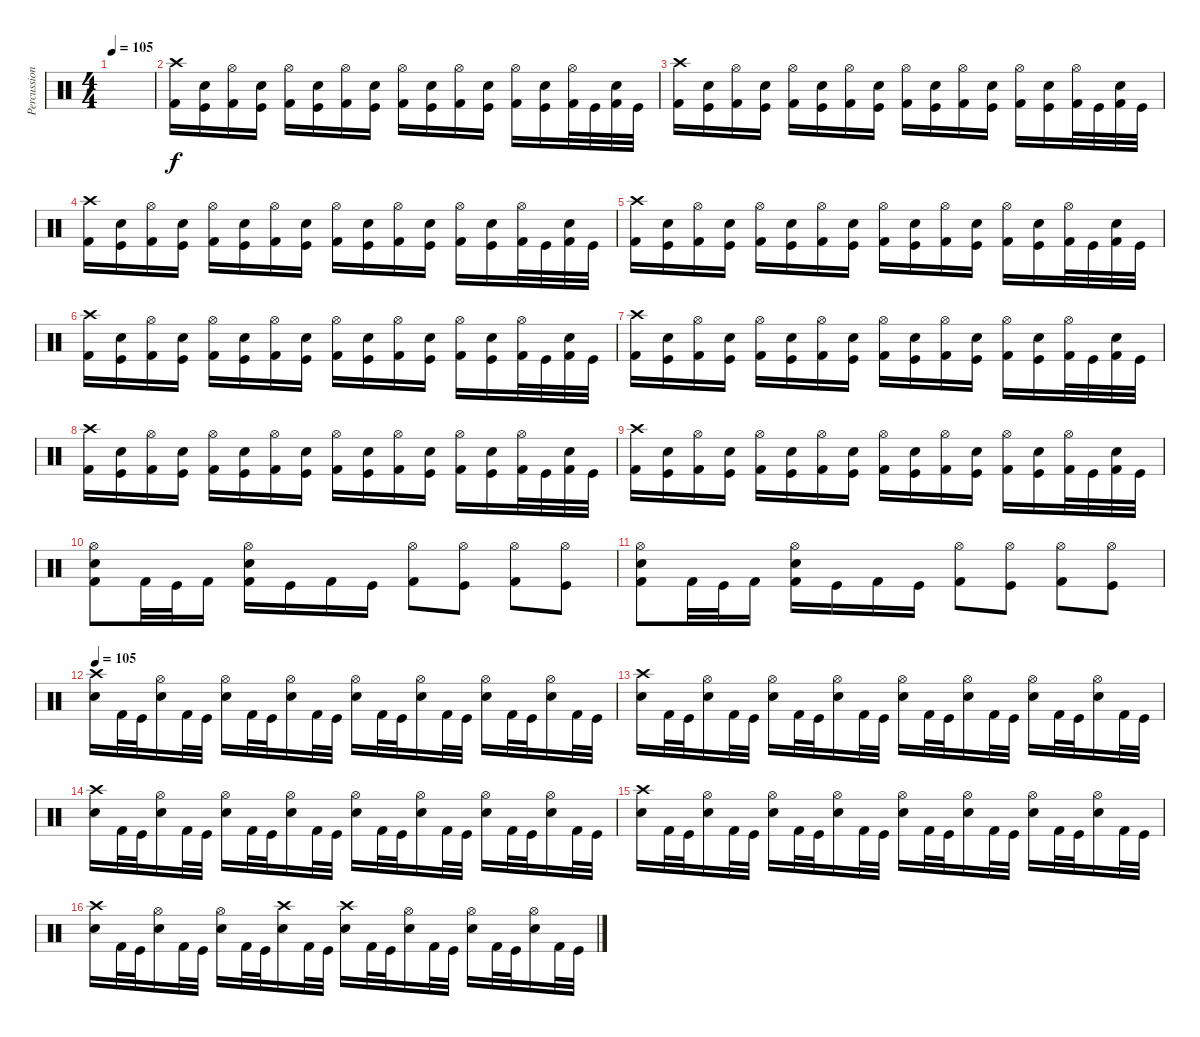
\track ("Percussion" "Percussion") {instrument percussion}
\staff {score}
\articulation defaults
\ts (4 4)
\tempo 105
\clef neutral
\ks c
|
("Kick (hit) 2" "Crash high (hit)").16 ("Kick (hit)" "Snare (hit) 2").16 ("Kick (hit) 2" "Hi-Hat (open)").16 ("Kick (hit)" "Snare (hit) 2").16 ("Kick (hit) 2" "Hi-Hat (open)").16 ("Kick (hit)" "Snare (hit) 2").16 ("Kick (hit) 2" "Hi-Hat (open)").16 ("Kick (hit)" "Snare (hit) 2").16 ("Kick (hit) 2" "Hi-Hat (open)").16 ("Kick (hit)" "Snare (hit) 2").16 ("Kick (hit) 2" "Hi-Hat (open)").16 ("Kick (hit)" "Snare (hit) 2").16 ("Kick (hit) 2" "Hi-Hat (open)").16 ("Kick (hit)" "Snare (hit) 2").16 ("Kick (hit) 2" "Hi-Hat (open)").32 "Kick (hit)".32 ("Kick (hit) 2" "Snare (hit) 2").32 "Kick (hit)".32 |
("Kick (hit) 2" "Crash high (hit)").16 ("Kick (hit)" "Snare (hit) 2").16 ("Kick (hit) 2" "Hi-Hat (open)").16 ("Kick (hit)" "Snare (hit) 2").16 ("Kick (hit) 2" "Hi-Hat (open)").16 ("Kick (hit)" "Snare (hit) 2").16 ("Kick (hit) 2" "Hi-Hat (open)").16 ("Kick (hit)" "Snare (hit) 2").16 ("Kick (hit) 2" "Hi-Hat (open)").16 ("Kick (hit)" "Snare (hit) 2").16 ("Kick (hit) 2" "Hi-Hat (open)").16 ("Kick (hit)" "Snare (hit) 2").16 ("Kick (hit) 2" "Hi-Hat (open)").16 ("Kick (hit)" "Snare (hit) 2").16 ("Kick (hit) 2" "Hi-Hat (open)").32 "Kick (hit)".32 ("Kick (hit) 2" "Snare (hit) 2").32 "Kick (hit)".32 |
("Kick (hit) 2" "Crash high (hit)").16 ("Kick (hit)" "Snare (hit) 2").16 ("Kick (hit) 2" "Hi-Hat (open)").16 ("Kick (hit)" "Snare (hit) 2").16 ("Kick (hit) 2" "Hi-Hat (open)").16 ("Kick (hit)" "Snare (hit) 2").16 ("Kick (hit) 2" "Hi-Hat (open)").16 ("Kick (hit)" "Snare (hit) 2").16 ("Kick (hit) 2" "Hi-Hat (open)").16 ("Kick (hit)" "Snare (hit) 2").16 ("Kick (hit) 2" "Hi-Hat (open)").16 ("Kick (hit)" "Snare (hit) 2").16 ("Kick (hit) 2" "Hi-Hat (open)").16 ("Kick (hit)" "Snare (hit) 2").16 ("Kick (hit) 2" "Hi-Hat (open)").32 "Kick (hit)".32 ("Kick (hit) 2" "Snare (hit) 2").32 "Kick (hit)".32 |
("Kick (hit) 2" "Crash high (hit)").16 ("Kick (hit)" "Snare (hit) 2").16 ("Kick (hit) 2" "Hi-Hat (open)").16 ("Kick (hit)" "Snare (hit) 2").16 ("Kick (hit) 2" "Hi-Hat (open)").16 ("Kick (hit)" "Snare (hit) 2").16 ("Kick (hit) 2" "Hi-Hat (open)").16 ("Kick (hit)" "Snare (hit) 2").16 ("Kick (hit) 2" "Hi-Hat (open)").16 ("Kick (hit)" "Snare (hit) 2").16 ("Kick (hit) 2" "Hi-Hat (open)").16 ("Kick (hit)" "Snare (hit) 2").16 ("Kick (hit) 2" "Hi-Hat (open)").16 ("Kick (hit)" "Snare (hit) 2").16 ("Kick (hit) 2" "Hi-Hat (open)").32 "Kick (hit)".32 ("Kick (hit) 2" "Snare (hit) 2").32 "Kick (hit)".32 |
("Kick (hit) 2" "Crash high (hit)").16 ("Kick (hit)" "Snare (hit) 2").16 ("Kick (hit) 2" "Hi-Hat (open)").16 ("Kick (hit)" "Snare (hit) 2").16 ("Kick (hit) 2" "Hi-Hat (open)").16 ("Kick (hit)" "Snare (hit) 2").16 ("Kick (hit) 2" "Hi-Hat (open)").16 ("Kick (hit)" "Snare (hit) 2").16 ("Kick (hit) 2" "Hi-Hat (open)").16 ("Kick (hit)" "Snare (hit) 2").16 ("Kick (hit) 2" "Hi-Hat (open)").16 ("Kick (hit)" "Snare (hit) 2").16 ("Kick (hit) 2" "Hi-Hat (open)").16 ("Kick (hit)" "Snare (hit) 2").16 ("Kick (hit) 2" "Hi-Hat (open)").32 "Kick (hit)".32 ("Kick (hit) 2" "Snare (hit) 2").32 "Kick (hit)".32 |
("Kick (hit) 2" "Crash high (hit)").16 ("Kick (hit)" "Snare (hit) 2").16 ("Kick (hit) 2" "Hi-Hat (open)").16 ("Kick (hit)" "Snare (hit) 2").16 ("Kick (hit) 2" "Hi-Hat (open)").16 ("Kick (hit)" "Snare (hit) 2").16 ("Kick (hit) 2" "Hi-Hat (open)").16 ("Kick (hit)" "Snare (hit) 2").16 ("Kick (hit) 2" "Hi-Hat (open)").16 ("Kick (hit)" "Snare (hit) 2").16 ("Kick (hit) 2" "Hi-Hat (open)").16 ("Kick (hit)" "Snare (hit) 2").16 ("Kick (hit) 2" "Hi-Hat (open)").16 ("Kick (hit)" "Snare (hit) 2").16 ("Kick (hit) 2" "Hi-Hat (open)").32 "Kick (hit)".32 ("Kick (hit) 2" "Snare (hit) 2").32 "Kick (hit)".32 |
("Kick (hit) 2" "Crash high (hit)").16 ("Kick (hit)" "Snare (hit) 2").16 ("Kick (hit) 2" "Hi-Hat (open)").16 ("Kick (hit)" "Snare (hit) 2").16 ("Kick (hit) 2" "Hi-Hat (open)").16 ("Kick (hit)" "Snare (hit) 2").16 ("Kick (hit) 2" "Hi-Hat (open)").16 ("Kick (hit)" "Snare (hit) 2").16 ("Kick (hit) 2" "Hi-Hat (open)").16 ("Kick (hit)" "Snare (hit) 2").16 ("Kick (hit) 2" "Hi-Hat (open)").16 ("Kick (hit)" "Snare (hit) 2").16 ("Kick (hit) 2" "Hi-Hat (open)").16 ("Kick (hit)" "Snare (hit) 2").16 ("Kick (hit) 2" "Hi-Hat (open)").32 "Kick (hit)".32 ("Kick (hit) 2" "Snare (hit) 2").32 "Kick (hit)".32 |
("Kick (hit) 2" "Crash high (hit)").16 ("Kick (hit)" "Snare (hit) 2").16 ("Kick (hit) 2" "Hi-Hat (open)").16 ("Kick (hit)" "Snare (hit) 2").16 ("Kick (hit) 2" "Hi-Hat (open)").16 ("Kick (hit)" "Snare (hit) 2").16 ("Kick (hit) 2" "Hi-Hat (open)").16 ("Kick (hit)" "Snare (hit) 2").16 ("Kick (hit) 2" "Hi-Hat (open)").16 ("Kick (hit)" "Snare (hit) 2").16 ("Kick (hit) 2" "Hi-Hat (open)").16 ("Kick (hit)" "Snare (hit) 2").16 ("Kick (hit) 2" "Hi-Hat (open)").16 ("Kick (hit)" "Snare (hit) 2").16 ("Kick (hit) 2" "Hi-Hat (open)").32 "Kick (hit)".32 ("Kick (hit) 2" "Snare (hit) 2").32 "Kick (hit)".32 |
("Kick (hit) 2" "Hi-Hat (open)" "Snare (hit) 2").8 "Kick (hit) 2".32 "Kick (hit)".32 "Kick (hit) 2".16 ("Kick (hit) 2" "Hi-Hat (open)" "Snare (hit) 2").16 "Kick (hit)".16 "Kick (hit) 2".16 "Kick (hit)".16 ("Kick (hit) 2" "Hi-Hat (open)").8 ("Kick (hit)" "Hi-Hat (open)").8 ("Kick (hit) 2" "Hi-Hat (open)").8 ("Kick (hit)" "Hi-Hat (open)").8 |
("Kick (hit) 2" "Hi-Hat (open)" "Snare (hit) 2").8 "Kick (hit) 2".32 "Kick (hit)".32 "Kick (hit) 2".16 ("Kick (hit) 2" "Hi-Hat (open)" "Snare (hit) 2").16 "Kick (hit)".16 "Kick (hit) 2".16 "Kick (hit)".16 ("Kick (hit) 2" "Hi-Hat (open)").8 ("Kick (hit)" "Hi-Hat (open)").8 ("Kick (hit) 2" "Hi-Hat (open)").8 ("Kick (hit)" "Hi-Hat (open)").8 |
\tempo 105
("Snare (hit) 2" "Crash high (hit)").16 "Kick (hit) 2".32 "Kick (hit)".32 ("Snare (hit) 2" "Hi-Hat (open)").16 "Kick (hit) 2".32 "Kick (hit)".32 ("Snare (hit) 2" "Hi-Hat (open)").16 "Kick (hit) 2".32 "Kick (hit)".32 ("Snare (hit) 2" "Hi-Hat (open)").16 "Kick (hit) 2".32 "Kick (hit)".32 ("Snare (hit) 2" "Hi-Hat (open)").16 "Kick (hit) 2".32 "Kick (hit)".32 ("Snare (hit) 2" "Hi-Hat (open)").16 "Kick (hit) 2".32 "Kick (hit)".32 ("Snare (hit) 2" "Hi-Hat (open)").16 "Kick (hit) 2".32 "Kick (hit)".32 ("Snare (hit) 2" "Hi-Hat (open)").16 "Kick (hit) 2".32 "Kick (hit)".32 |
("Snare (hit) 2" "Crash high (hit)").16 "Kick (hit) 2".32 "Kick (hit)".32 ("Snare (hit) 2" "Hi-Hat (open)").16 "Kick (hit) 2".32 "Kick (hit)".32 ("Snare (hit) 2" "Hi-Hat (open)").16 "Kick (hit) 2".32 "Kick (hit)".32 ("Snare (hit) 2" "Hi-Hat (open)").16 "Kick (hit) 2".32 "Kick (hit)".32 ("Snare (hit) 2" "Hi-Hat (open)").16 "Kick (hit) 2".32 "Kick (hit)".32 ("Snare (hit) 2" "Hi-Hat (open)").16 "Kick (hit) 2".32 "Kick (hit)".32 ("Snare (hit) 2" "Hi-Hat (open)").16 "Kick (hit) 2".32 "Kick (hit)".32 ("Snare (hit) 2" "Hi-Hat (open)").16 "Kick (hit) 2".32 "Kick (hit)".32 |
("Snare (hit) 2" "Crash high (hit)").16 "Kick (hit) 2".32 "Kick (hit)".32 ("Snare (hit) 2" "Hi-Hat (open)").16 "Kick (hit) 2".32 "Kick (hit)".32 ("Snare (hit) 2" "Hi-Hat (open)").16 "Kick (hit) 2".32 "Kick (hit)".32 ("Snare (hit) 2" "Hi-Hat (open)").16 "Kick (hit) 2".32 "Kick (hit)".32 ("Snare (hit) 2" "Hi-Hat (open)").16 "Kick (hit) 2".32 "Kick (hit)".32 ("Snare (hit) 2" "Hi-Hat (open)").16 "Kick (hit) 2".32 "Kick (hit)".32 ("Snare (hit) 2" "Hi-Hat (open)").16 "Kick (hit) 2".32 "Kick (hit)".32 ("Snare (hit) 2" "Hi-Hat (open)").16 "Kick (hit) 2".32 "Kick (hit)".32 |
("Snare (hit) 2" "Crash high (hit)").16 "Kick (hit) 2".32 "Kick (hit)".32 ("Snare (hit) 2" "Hi-Hat (open)").16 "Kick (hit) 2".32 "Kick (hit)".32 ("Snare (hit) 2" "Hi-Hat (open)").16 "Kick (hit) 2".32 "Kick (hit)".32 ("Snare (hit) 2" "Hi-Hat (open)").16 "Kick (hit) 2".32 "Kick (hit)".32 ("Snare (hit) 2" "Hi-Hat (open)").16 "Kick (hit) 2".32 "Kick (hit)".32 ("Snare (hit) 2" "Hi-Hat (open)").16 "Kick (hit) 2".32 "Kick (hit)".32 ("Snare (hit) 2" "Hi-Hat (open)").16 "Kick (hit) 2".32 "Kick (hit)".32 ("Snare (hit) 2" "Hi-Hat (open)").16 "Kick (hit) 2".32 "Kick (hit)".32 |
("Snare (hit) 2" "Crash high (hit)").16 "Kick (hit) 2".32 "Kick (hit)".32 ("Snare (hit) 2" "Hi-Hat (open)").16 "Kick (hit) 2".32 "Kick (hit)".32 ("Snare (hit) 2" "Hi-Hat (open)").16 "Kick (hit) 2".32 "Kick (hit)".32 ("Snare (hit) 2" "Crash high (hit)").16 "Kick (hit) 2".32 "Kick (hit)".32 ("Snare (hit) 2" "Crash high (hit)").16 "Kick (hit) 2".32 "Kick (hit)".32 ("Snare (hit) 2" "Hi-Hat (open)").16 "Kick (hit) 2".32 "Kick (hit)".32 ("Snare (hit) 2" "Hi-Hat (open)").16 "Kick (hit) 2".32 "Kick (hit)".32 ("Snare (hit) 2" "Hi-Hat (open)").16 "Kick (hit) 2".32 "Kick (hit)".32
